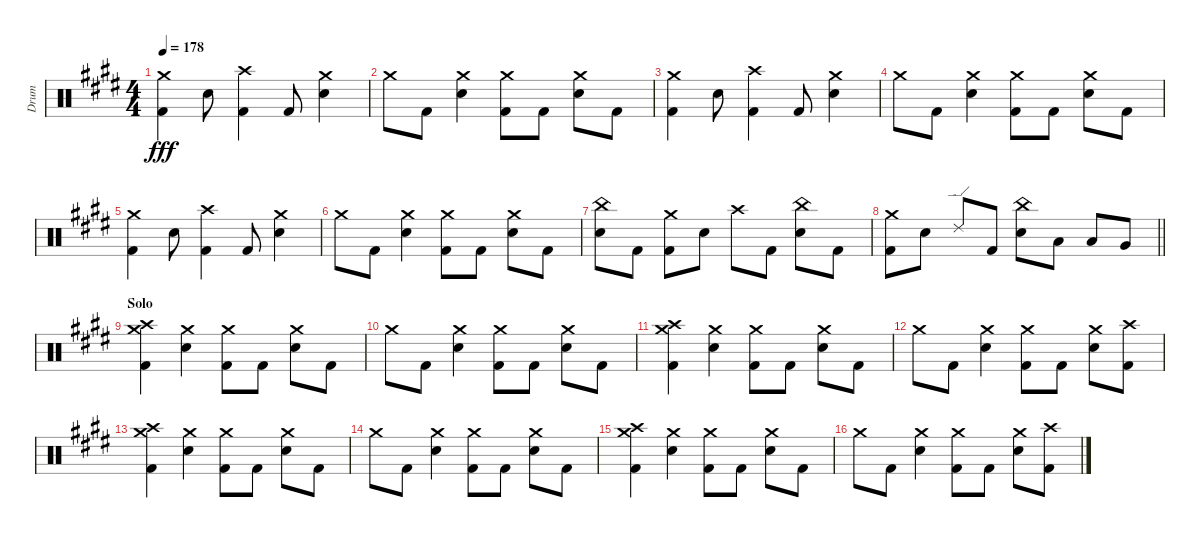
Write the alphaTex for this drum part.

\track ("Drum" "Drum") {instrument percussion}
\staff {score}
\articulation defaults
\ts (4 4)
\tempo 178
\clef neutral
\ks e
("Crash medium (hit)" "Kick (hit) 2").4{dy fff} "Electric Snare (hit)".8 ("Crash high (hit)" "Kick (hit) 2").4 "Kick (hit) 2".8 ("Crash medium (hit)" "Electric Snare (hit)").4 |
"Crash medium (hit)".8 "Kick (hit) 2".8 ("Crash medium (hit)" "Electric Snare (hit)").4 ("Crash medium (hit)" "Kick (hit) 2").8 "Kick (hit) 2".8 ("Crash medium (hit)" "Electric Snare (hit)").8 "Kick (hit) 2".8 |
("Crash medium (hit)" "Kick (hit) 2").4 "Electric Snare (hit)".8 ("Crash high (hit)" "Kick (hit) 2").4 "Kick (hit) 2".8 ("Crash medium (hit)" "Electric Snare (hit)").4 |
"Crash medium (hit)".8 "Kick (hit) 2".8 ("Crash medium (hit)" "Electric Snare (hit)").4 ("Crash medium (hit)" "Kick (hit) 2").8 "Kick (hit) 2".8 ("Crash medium (hit)" "Electric Snare (hit)").8 "Kick (hit) 2".8 |
("Crash medium (hit)" "Kick (hit) 2").4 "Electric Snare (hit)".8 ("Crash high (hit)" "Kick (hit) 2").4 "Kick (hit) 2".8 ("Crash medium (hit)" "Electric Snare (hit)").4 |
"Crash medium (hit)".8 "Kick (hit) 2".8 ("Crash medium (hit)" "Electric Snare (hit)").4 ("Crash medium (hit)" "Kick (hit) 2").8 "Kick (hit) 2".8 ("Crash medium (hit)" "Electric Snare (hit)").8 "Kick (hit) 2".8 |
("China (hit)" "Electric Snare (hit)").8 "Kick (hit) 2".8 ("Crash medium (hit)" "Kick (hit) 2").8 "Electric Snare (hit)".8 "Crash high (hit)".8 "Kick (hit) 2".8 ("China (hit)" "Electric Snare (hit)").8 "Kick (hit) 2".8 |
\barLineRight lightlight
("Crash medium (hit)" "Kick (hit) 2").8 "Electric Snare (hit)".8 "Ride (edge) 2".8 "Kick (hit) 2".8 ("China (hit)" "Electric Snare (hit)").8 "Low Tom (hit)".8 "Low Tom (hit)".8 "Very Low Tom (hit)".8 |
\section ("" "Solo")
("Crash medium (hit)" "Crash high (hit)" "Kick (hit) 2").4 ("Crash medium (hit)" "Electric Snare (hit)").4 ("Crash medium (hit)" "Kick (hit) 2").8 "Kick (hit) 2".8 ("Crash medium (hit)" "Electric Snare (hit)").8 "Kick (hit) 2".8 |
"Crash medium (hit)".8 "Kick (hit) 2".8 ("Crash medium (hit)" "Electric Snare (hit)").4 ("Crash medium (hit)" "Kick (hit) 2").8 "Kick (hit) 2".8 ("Crash medium (hit)" "Electric Snare (hit)").8 "Kick (hit) 2".8 |
("Crash medium (hit)" "Crash high (hit)" "Kick (hit) 2").4 ("Crash medium (hit)" "Electric Snare (hit)").4 ("Crash medium (hit)" "Kick (hit) 2").8 "Kick (hit) 2".8 ("Crash medium (hit)" "Electric Snare (hit)").8 "Kick (hit) 2".8 |
"Crash medium (hit)".8 "Kick (hit) 2".8 ("Crash medium (hit)" "Electric Snare (hit)").4 ("Crash medium (hit)" "Kick (hit) 2").8 "Kick (hit) 2".8 ("Crash medium (hit)" "Electric Snare (hit)").8 ("Crash high (hit)" "Kick (hit) 2").8 |
("Crash medium (hit)" "Crash high (hit)" "Kick (hit) 2").4 ("Crash medium (hit)" "Electric Snare (hit)").4 ("Crash medium (hit)" "Kick (hit) 2").8 "Kick (hit) 2".8 ("Crash medium (hit)" "Electric Snare (hit)").8 "Kick (hit) 2".8 |
"Crash medium (hit)".8 "Kick (hit) 2".8 ("Crash medium (hit)" "Electric Snare (hit)").4 ("Crash medium (hit)" "Kick (hit) 2").8 "Kick (hit) 2".8 ("Crash medium (hit)" "Electric Snare (hit)").8 "Kick (hit) 2".8 |
("Crash medium (hit)" "Crash high (hit)" "Kick (hit) 2").4 ("Crash medium (hit)" "Electric Snare (hit)").4 ("Crash medium (hit)" "Kick (hit) 2").8 "Kick (hit) 2".8 ("Crash medium (hit)" "Electric Snare (hit)").8 "Kick (hit) 2".8 |
"Crash medium (hit)".8 "Kick (hit) 2".8 ("Crash medium (hit)" "Electric Snare (hit)").4 ("Crash medium (hit)" "Kick (hit) 2").8 "Kick (hit) 2".8 ("Crash medium (hit)" "Electric Snare (hit)").8 ("Crash high (hit)" "Kick (hit) 2").8
